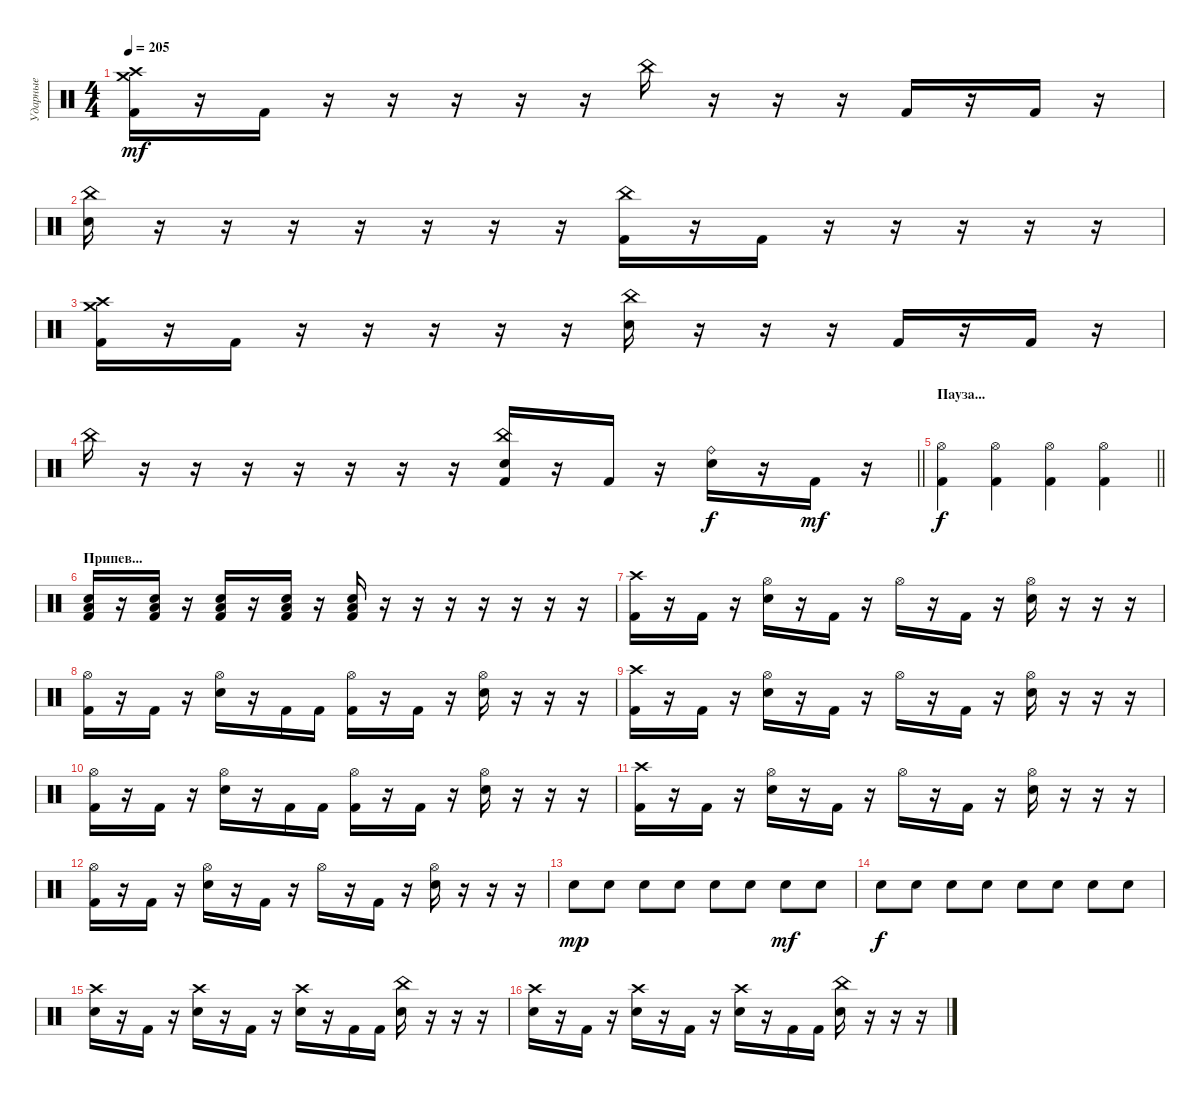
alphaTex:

\track ("Ударные" "Ударные") {instrument percussion}
\staff {score}
\articulation defaults
\ts (4 4)
\tempo 205
\clef neutral
\ks c
("Crash high (hit)" "Crash medium (hit)" "Kick (hit) 2").16{dy mf} r.16 "Kick (hit) 2".16 r.16 r.16 r.16 r.16 r.16 "China (hit)".16 r.16 r.16 r.16 "Kick (hit) 2".16 r.16 "Kick (hit) 2".16 r.16 |
("China (hit)" "Electric Snare (hit)").16 r.16 r.16 r.16 r.16 r.16 r.16 r.16 ("China (hit)" "Kick (hit) 2").16 r.16 "Kick (hit) 2".16 r.16 r.16 r.16 r.16 r.16 |
("Crash high (hit)" "Crash medium (hit)" "Kick (hit) 2").16 r.16 "Kick (hit) 2".16 r.16 r.16 r.16 r.16 r.16 ("China (hit)" "Electric Snare (hit)").16 r.16 r.16 r.16 "Kick (hit) 2".16 r.16 "Kick (hit) 2".16 r.16 |
\barLineRight lightlight "China (hit)".16
r.16 r.16 r.16 r.16 r.16 r.16 r.16 ("China (hit)" "Electric Snare (hit)" "Kick (hit) 2").16 r.16 "Kick (hit) 2".16 r.16 ("Ride (bell)" "Electric Snare (hit)").16{dy f} r.16 "Kick (hit) 2".16{dy mf} r.16 |
\section ("" "Пауза...")
\barLineRight lightlight
("Hi-Hat (open)" "Kick (hit) 2").4{dy f} ("Hi-Hat (open)" "Kick (hit) 2").4 ("Hi-Hat (open)" "Kick (hit) 2").4 ("Hi-Hat (open)" "Kick (hit) 2").4 |
\section ("" "Припев...")
("Low Floor Tom (hit)" "Electric Snare (hit)" "Kick (hit) 2").16 r.16 ("Low Floor Tom (hit)" "Electric Snare (hit)" "Kick (hit) 2").16 r.16 ("Low Floor Tom (hit)" "Electric Snare (hit)" "Kick (hit) 2").16 r.16 ("Low Floor Tom (hit)" "Electric Snare (hit)" "Kick (hit) 2").16 r.16 ("Low Floor Tom (hit)" "Electric Snare (hit)" "Kick (hit) 2").16 r.16 r.16 r.16 r.16 r.16 r.16 r.16 |
("Crash high (hit)" "Kick (hit) 2").16 r.16 "Kick (hit) 2".16 r.16 ("Hi-Hat (open)" "Electric Snare (hit)").16 r.16 "Kick (hit) 2".16 r.16 "Hi-Hat (open)".16 r.16 "Kick (hit) 2".16 r.16 ("Hi-Hat (open)" "Electric Snare (hit)").16 r.16 r.16 r.16 |
("Hi-Hat (open)" "Kick (hit) 2").16 r.16 "Kick (hit) 2".16 r.16 ("Hi-Hat (open)" "Electric Snare (hit)").16 r.16 "Kick (hit) 2".16 "Kick (hit) 2".16 ("Hi-Hat (open)" "Kick (hit) 2").16 r.16 "Kick (hit) 2".16 r.16 ("Hi-Hat (open)" "Electric Snare (hit)").16 r.16 r.16 r.16 |
("Crash high (hit)" "Kick (hit) 2").16 r.16 "Kick (hit) 2".16 r.16 ("Hi-Hat (open)" "Electric Snare (hit)").16 r.16 "Kick (hit) 2".16 r.16 "Hi-Hat (open)".16 r.16 "Kick (hit) 2".16 r.16 ("Hi-Hat (open)" "Electric Snare (hit)").16 r.16 r.16 r.16 |
("Hi-Hat (open)" "Kick (hit) 2").16 r.16 "Kick (hit) 2".16 r.16 ("Hi-Hat (open)" "Electric Snare (hit)").16 r.16 "Kick (hit) 2".16 "Kick (hit) 2".16 ("Hi-Hat (open)" "Kick (hit) 2").16 r.16 "Kick (hit) 2".16 r.16 ("Hi-Hat (open)" "Electric Snare (hit)").16 r.16 r.16 r.16 |
("Crash high (hit)" "Kick (hit) 2").16 r.16 "Kick (hit) 2".16 r.16 ("Hi-Hat (open)" "Electric Snare (hit)").16 r.16 "Kick (hit) 2".16 r.16 "Hi-Hat (open)".16 r.16 "Kick (hit) 2".16 r.16 ("Hi-Hat (open)" "Electric Snare (hit)").16 r.16 r.16 r.16 |
("Hi-Hat (open)" "Kick (hit) 2").16 r.16 "Kick (hit) 2".16 r.16 ("Hi-Hat (open)" "Electric Snare (hit)").16 r.16 "Kick (hit) 2".16 r.16 "Hi-Hat (open)".16 r.16 "Kick (hit) 2".16 r.16 ("Hi-Hat (open)" "Electric Snare (hit)").16 r.16 r.16 r.16 |
"Electric Snare (hit)".8{dy mp} "Electric Snare (hit)".8 "Electric Snare (hit)".8 "Electric Snare (hit)".8 "Electric Snare (hit)".8 "Electric Snare (hit)".8 "Electric Snare (hit)".8{dy mf} "Electric Snare (hit)".8 |
"Electric Snare (hit)".8{dy f} "Electric Snare (hit)".8 "Electric Snare (hit)".8 "Electric Snare (hit)".8 "Electric Snare (hit)".8 "Electric Snare (hit)".8 "Electric Snare (hit)".8 "Electric Snare (hit)".8 |
("Crash high (hit)" "Electric Snare (hit)").16 r.16 "Kick (hit) 2".16 r.16 ("Crash high (hit)" "Electric Snare (hit)").16 r.16 "Kick (hit) 2".16 r.16 ("Crash high (hit)" "Electric Snare (hit)").16 r.16 "Kick (hit) 2".16 "Kick (hit) 2".16 ("China (hit)" "Electric Snare (hit)").16 r.16 r.16 r.16 |
("Crash high (hit)" "Electric Snare (hit)").16 r.16 "Kick (hit) 2".16 r.16 ("Crash high (hit)" "Electric Snare (hit)").16 r.16 "Kick (hit) 2".16 r.16 ("Crash high (hit)" "Electric Snare (hit)").16 r.16 "Kick (hit) 2".16 "Kick (hit) 2".16 ("China (hit)" "Electric Snare (hit)").16 r.16 r.16 r.16
